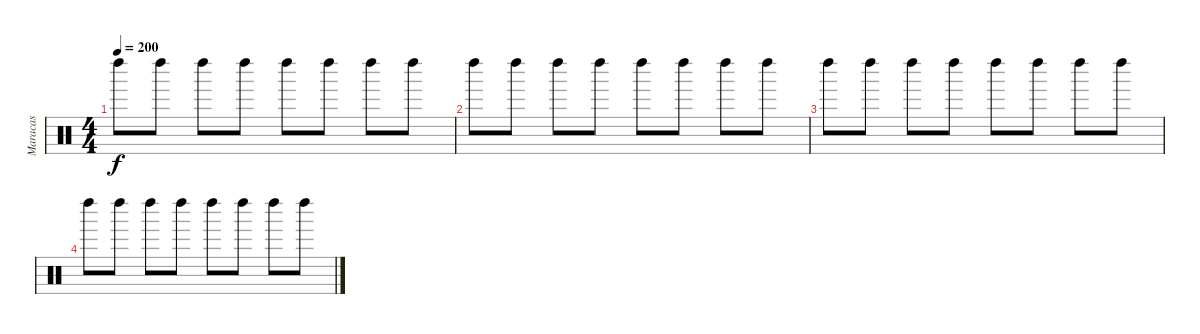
\track ("Maracas" "Maracas") {instrument percussion}
\staff {score}
\articulation defaults
\ts (4 4)
\tempo 200
\clef neutral
\ks c "Left Maraca (hit)".8{dy f} "Left Maraca (hit)".8 "Left Maraca (hit)".8 "Left Maraca (hit)".8 "Left Maraca (hit)".8 "Left Maraca (hit)".8 "Left Maraca (hit)".8 "Left Maraca (hit)".8
|
"Left Maraca (hit)".8 "Left Maraca (hit)".8 "Left Maraca (hit)".8 "Left Maraca (hit)".8 "Left Maraca (hit)".8 "Left Maraca (hit)".8 "Left Maraca (hit)".8 "Left Maraca (hit)".8 |
"Left Maraca (hit)".8 "Left Maraca (hit)".8 "Left Maraca (hit)".8 "Left Maraca (hit)".8 "Left Maraca (hit)".8 "Left Maraca (hit)".8 "Left Maraca (hit)".8 "Left Maraca (hit)".8 |
"Left Maraca (hit)".8 "Left Maraca (hit)".8 "Left Maraca (hit)".8 "Left Maraca (hit)".8 "Left Maraca (hit)".8 "Left Maraca (hit)".8 "Left Maraca (hit)".8 "Left Maraca (hit)".8
